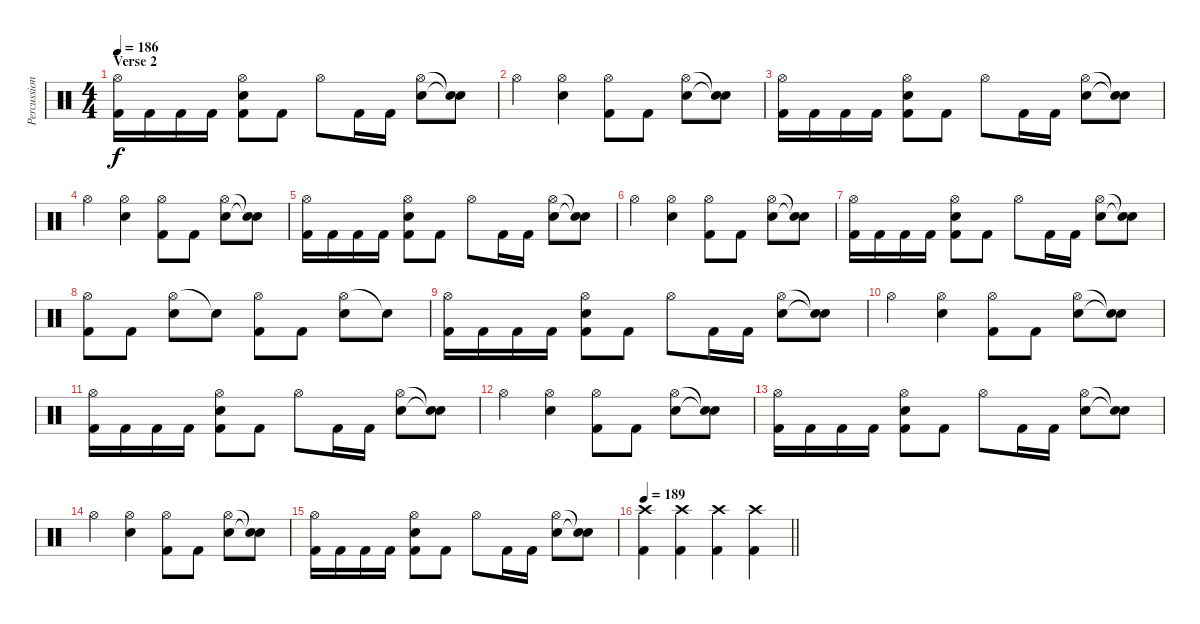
\track ("Percussion" "Percussion") {instrument percussion}
\staff {score}
\articulation defaults
\ts (4 4)
\section ("" "Verse 2")
\tempo 186
\clef neutral
\ks c
("Hi-Hat (open)" "Kick (hit) 2").16{dy f} "Kick (hit) 2".16 "Kick (hit) 2".16 "Kick (hit) 2".16 ("Hi-Hat (open)" "Electric Snare (hit)" "Kick (hit) 2").8 "Kick (hit) 2".8 "Hi-Hat (open)".8 "Kick (hit) 2".16 "Kick (hit) 2".16 ("Hi-Hat (open)" "Electric Snare (hit)").8 ("Snare (hit)"{t} "Snare (hit)"{t}).8 |
"Hi-Hat (open)".4 ("Hi-Hat (open)" "Electric Snare (hit)").4 ("Hi-Hat (open)" "Kick (hit) 2").8 "Kick (hit) 2".8 ("Hi-Hat (open)" "Electric Snare (hit)").8 ("Snare (hit)"{t} "Snare (hit)"{t}).8 |
("Hi-Hat (open)" "Kick (hit) 2").16 "Kick (hit) 2".16 "Kick (hit) 2".16 "Kick (hit) 2".16 ("Hi-Hat (open)" "Electric Snare (hit)" "Kick (hit) 2").8 "Kick (hit) 2".8 "Hi-Hat (open)".8 "Kick (hit) 2".16 "Kick (hit) 2".16 ("Hi-Hat (open)" "Electric Snare (hit)").8 ("Snare (hit)"{t} "Snare (hit)"{t}).8 |
"Hi-Hat (open)".4 ("Hi-Hat (open)" "Electric Snare (hit)").4 ("Hi-Hat (open)" "Kick (hit) 2").8 "Kick (hit) 2".8 ("Hi-Hat (open)" "Electric Snare (hit)").8 ("Snare (hit)"{t} "Snare (hit)"{t}).8 |
("Hi-Hat (open)" "Kick (hit) 2").16 "Kick (hit) 2".16 "Kick (hit) 2".16 "Kick (hit) 2".16 ("Hi-Hat (open)" "Electric Snare (hit)" "Kick (hit) 2").8 "Kick (hit) 2".8 "Hi-Hat (open)".8 "Kick (hit) 2".16 "Kick (hit) 2".16 ("Hi-Hat (open)" "Electric Snare (hit)").8 ("Snare (hit)"{t} "Snare (hit)"{t}).8 |
"Hi-Hat (open)".4 ("Hi-Hat (open)" "Electric Snare (hit)").4 ("Hi-Hat (open)" "Kick (hit) 2").8 "Kick (hit) 2".8 ("Hi-Hat (open)" "Electric Snare (hit)").8 ("Snare (hit)"{t} "Snare (hit)"{t}).8 |
("Hi-Hat (open)" "Kick (hit) 2").16 "Kick (hit) 2".16 "Kick (hit) 2".16 "Kick (hit) 2".16 ("Hi-Hat (open)" "Electric Snare (hit)" "Kick (hit) 2").8 "Kick (hit) 2".8 "Hi-Hat (open)".8 "Kick (hit) 2".16 "Kick (hit) 2".16 ("Hi-Hat (open)" "Electric Snare (hit)").8 ("Snare (hit)"{t} "Snare (hit)"{t}).8 |
("Hi-Hat (open)" "Kick (hit) 2").8 "Kick (hit) 2".8 ("Hi-Hat (open)" "Electric Snare (hit)").8 "Snare (hit)"{t}.8 ("Hi-Hat (open)" "Kick (hit) 2").8 "Kick (hit) 2".8 ("Hi-Hat (open)" "Electric Snare (hit)").8 "Snare (hit)"{t}.8 |
("Hi-Hat (open)" "Kick (hit) 2").16 "Kick (hit) 2".16 "Kick (hit) 2".16 "Kick (hit) 2".16 ("Hi-Hat (open)" "Electric Snare (hit)" "Kick (hit) 2").8 "Kick (hit) 2".8 "Hi-Hat (open)".8 "Kick (hit) 2".16 "Kick (hit) 2".16 ("Hi-Hat (open)" "Electric Snare (hit)").8 ("Snare (hit)"{t} "Snare (hit)"{t}).8 |
"Hi-Hat (open)".4 ("Hi-Hat (open)" "Electric Snare (hit)").4 ("Hi-Hat (open)" "Kick (hit) 2").8 "Kick (hit) 2".8 ("Hi-Hat (open)" "Electric Snare (hit)").8 ("Snare (hit)"{t} "Snare (hit)"{t}).8 |
("Hi-Hat (open)" "Kick (hit) 2").16 "Kick (hit) 2".16 "Kick (hit) 2".16 "Kick (hit) 2".16 ("Hi-Hat (open)" "Electric Snare (hit)" "Kick (hit) 2").8 "Kick (hit) 2".8 "Hi-Hat (open)".8 "Kick (hit) 2".16 "Kick (hit) 2".16 ("Hi-Hat (open)" "Electric Snare (hit)").8 ("Snare (hit)"{t} "Snare (hit)"{t}).8 |
"Hi-Hat (open)".4 ("Hi-Hat (open)" "Electric Snare (hit)").4 ("Hi-Hat (open)" "Kick (hit) 2").8 "Kick (hit) 2".8 ("Hi-Hat (open)" "Electric Snare (hit)").8 ("Snare (hit)"{t} "Snare (hit)"{t}).8 |
("Hi-Hat (open)" "Kick (hit) 2").16 "Kick (hit) 2".16 "Kick (hit) 2".16 "Kick (hit) 2".16 ("Hi-Hat (open)" "Electric Snare (hit)" "Kick (hit) 2").8 "Kick (hit) 2".8 "Hi-Hat (open)".8 "Kick (hit) 2".16 "Kick (hit) 2".16 ("Hi-Hat (open)" "Electric Snare (hit)").8 ("Snare (hit)"{t} "Snare (hit)"{t}).8 |
"Hi-Hat (open)".4 ("Hi-Hat (open)" "Electric Snare (hit)").4 ("Hi-Hat (open)" "Kick (hit) 2").8 "Kick (hit) 2".8 ("Hi-Hat (open)" "Electric Snare (hit)").8 ("Snare (hit)"{t} "Snare (hit)"{t}).8 |
("Hi-Hat (open)" "Kick (hit) 2").16 "Kick (hit) 2".16 "Kick (hit) 2".16 "Kick (hit) 2".16 ("Hi-Hat (open)" "Electric Snare (hit)" "Kick (hit) 2").8 "Kick (hit) 2".8 "Hi-Hat (open)".8 "Kick (hit) 2".16 "Kick (hit) 2".16 ("Hi-Hat (open)" "Electric Snare (hit)").8 ("Snare (hit)"{t} "Snare (hit)"{t}).8 |
\tempo 189
\barLineRight lightlight
("Crash high (hit)" "Kick (hit) 2").4 ("Crash high (hit)" "Kick (hit) 2").4 ("Crash high (hit)" "Kick (hit) 2").4 ("Crash high (hit)" "Kick (hit) 2").4
